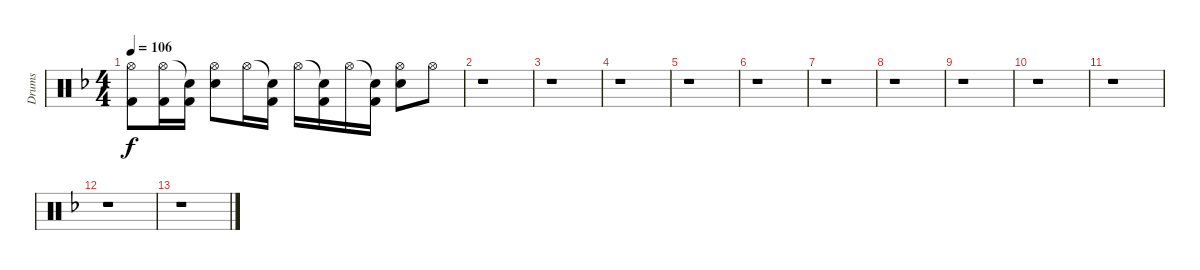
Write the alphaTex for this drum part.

\track ("Drums" "Drums") {instrument percussion}
\staff {score}
\articulation defaults
\ts (4 4)
\tempo 106
\clef neutral
\ks f
("Hi-Hat (open)" "Kick (hit) 2").8{dy f} ("Hi-Hat (open)" "Kick (hit) 2").16 ("Snare (hit)"{t} "Kick (hit) 2").16 ("Hi-Hat (open)" "Electric Snare (hit)").8 "Hi-Hat (open)".16 ("Snare (hit)"{t} "Kick (hit) 2").16 "Hi-Hat (open)".16 ("Snare (hit)"{t} "Kick (hit) 2").16 "Hi-Hat (open)".16 ("Snare (hit)"{t} "Kick (hit) 2").16 ("Hi-Hat (open)" "Electric Snare (hit)").8 "Hi-Hat (open)".8 |
r.1 |
r.1 |
r.1 |
r.1 |
r.1 |
r.1 |
r.1 |
r.1 |
r.1 |
r.1 |
r.1 |
r.1
